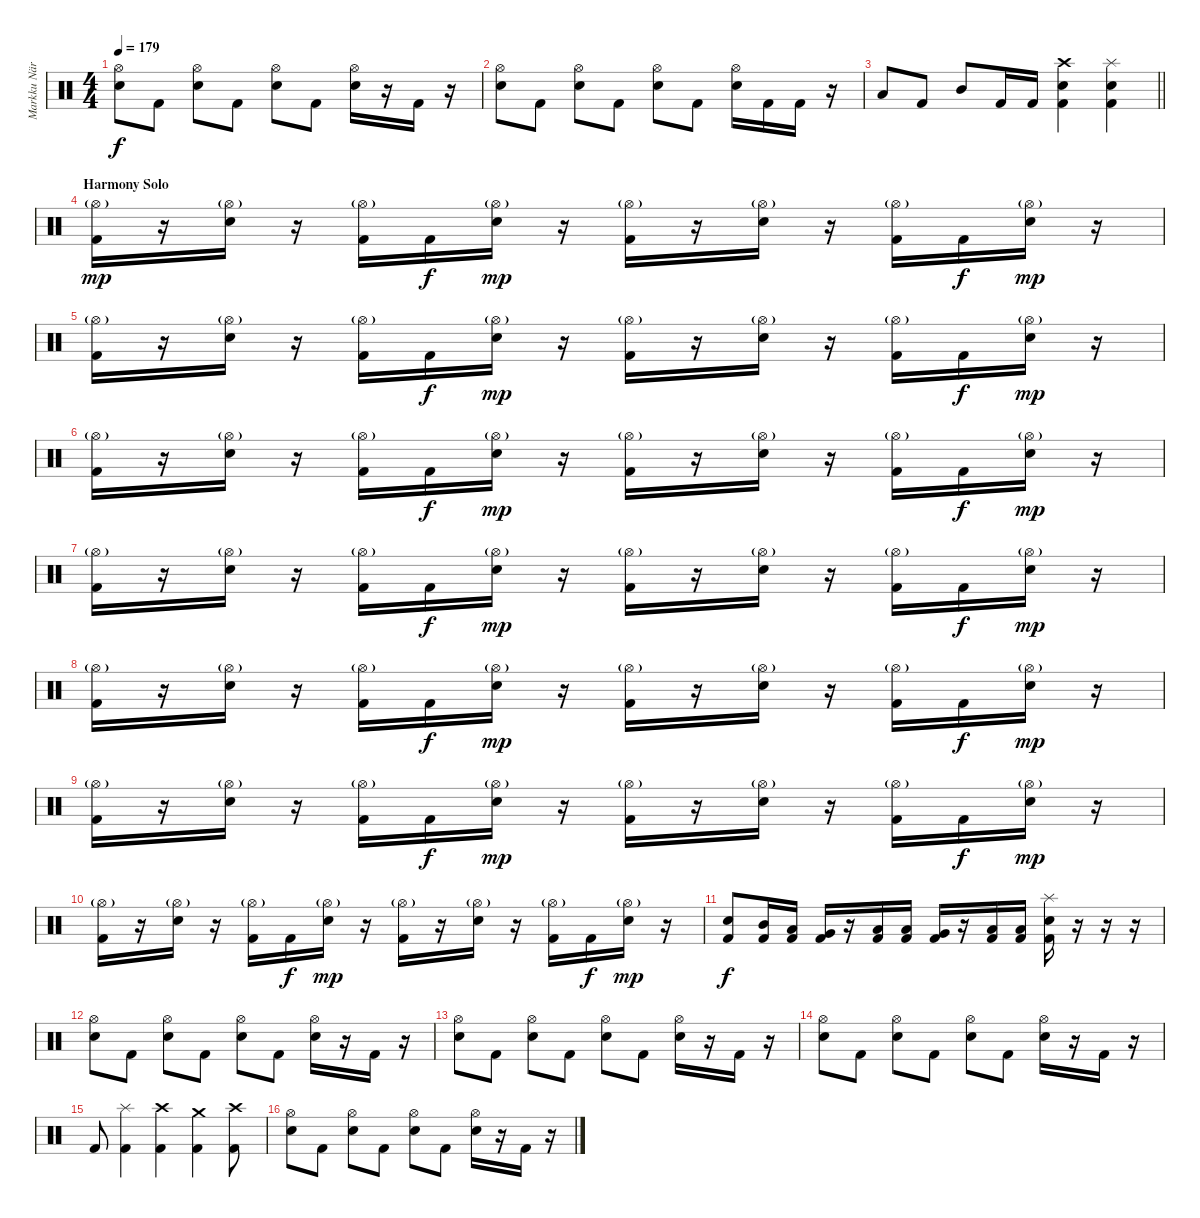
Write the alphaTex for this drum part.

\track ("Markku Näreneva (Drums)" "Markku När") {instrument percussion}
\staff {score}
\articulation defaults
\ts (4 4)
\tempo 179
\clef neutral
\ks c
("Snare (hit) 2" "Hi-Hat (open)").8{dy f} "Kick (hit) 2".8 ("Snare (hit) 2" "Hi-Hat (open)").8 "Kick (hit) 2".8 ("Snare (hit) 2" "Hi-Hat (open)").8 "Kick (hit) 2".8 ("Snare (hit) 2" "Hi-Hat (open)").16 r.16 "Kick (hit) 2".16 r.16 |
("Snare (hit) 2" "Hi-Hat (open)").8 "Kick (hit) 2".8 ("Snare (hit) 2" "Hi-Hat (open)").8 "Kick (hit) 2".8 ("Snare (hit) 2" "Hi-Hat (open)").8 "Kick (hit) 2".8 ("Snare (hit) 2" "Hi-Hat (open)").16 "Kick (hit) 2".16 "Kick (hit) 2".16 r.16 |
\barLineRight lightlight "Low Tom (hit)".8 "Kick (hit) 2".8 "Mid Tom (hit)".8 "Kick (hit) 2".16 "Kick (hit) 2".16
("Kick (hit) 2" "Snare (hit) 2" "Crash high (hit)").4 ("Kick (hit) 2" "Snare (hit) 2" "Splash (hit)").4 |
\section ("" "Harmony Solo")
("Kick (hit) 2" "Hi-Hat (open)"{g}).16{dy mp} r.16 ("Snare (hit) 2" "Hi-Hat (open)"{g}).16 r.16 ("Kick (hit) 2" "Hi-Hat (open)"{g}).16 "Kick (hit) 2".16{dy f} ("Snare (hit) 2" "Hi-Hat (open)"{g}).16{dy mp} r.16 ("Kick (hit) 2" "Hi-Hat (open)"{g}).16 r.16 ("Snare (hit) 2" "Hi-Hat (open)"{g}).16 r.16 ("Kick (hit) 2" "Hi-Hat (open)"{g}).16 "Kick (hit) 2".16{dy f} ("Snare (hit) 2" "Hi-Hat (open)"{g}).16{dy mp} r.16 |
("Kick (hit) 2" "Hi-Hat (open)"{g}).16 r.16 ("Snare (hit) 2" "Hi-Hat (open)"{g}).16 r.16 ("Kick (hit) 2" "Hi-Hat (open)"{g}).16 "Kick (hit) 2".16{dy f} ("Snare (hit) 2" "Hi-Hat (open)"{g}).16{dy mp} r.16 ("Kick (hit) 2" "Hi-Hat (open)"{g}).16 r.16 ("Snare (hit) 2" "Hi-Hat (open)"{g}).16 r.16 ("Kick (hit) 2" "Hi-Hat (open)"{g}).16 "Kick (hit) 2".16{dy f} ("Snare (hit) 2" "Hi-Hat (open)"{g}).16{dy mp} r.16 |
("Kick (hit) 2" "Hi-Hat (open)"{g}).16 r.16 ("Snare (hit) 2" "Hi-Hat (open)"{g}).16 r.16 ("Kick (hit) 2" "Hi-Hat (open)"{g}).16 "Kick (hit) 2".16{dy f} ("Snare (hit) 2" "Hi-Hat (open)"{g}).16{dy mp} r.16 ("Kick (hit) 2" "Hi-Hat (open)"{g}).16 r.16 ("Snare (hit) 2" "Hi-Hat (open)"{g}).16 r.16 ("Kick (hit) 2" "Hi-Hat (open)"{g}).16 "Kick (hit) 2".16{dy f} ("Snare (hit) 2" "Hi-Hat (open)"{g}).16{dy mp} r.16 |
("Kick (hit) 2" "Hi-Hat (open)"{g}).16 r.16 ("Snare (hit) 2" "Hi-Hat (open)"{g}).16 r.16 ("Kick (hit) 2" "Hi-Hat (open)"{g}).16 "Kick (hit) 2".16{dy f} ("Snare (hit) 2" "Hi-Hat (open)"{g}).16{dy mp} r.16 ("Kick (hit) 2" "Hi-Hat (open)"{g}).16 r.16 ("Snare (hit) 2" "Hi-Hat (open)"{g}).16 r.16 ("Kick (hit) 2" "Hi-Hat (open)"{g}).16 "Kick (hit) 2".16{dy f} ("Snare (hit) 2" "Hi-Hat (open)"{g}).16{dy mp} r.16 |
("Kick (hit) 2" "Hi-Hat (open)"{g}).16 r.16 ("Snare (hit) 2" "Hi-Hat (open)"{g}).16 r.16 ("Kick (hit) 2" "Hi-Hat (open)"{g}).16 "Kick (hit) 2".16{dy f} ("Snare (hit) 2" "Hi-Hat (open)"{g}).16{dy mp} r.16 ("Kick (hit) 2" "Hi-Hat (open)"{g}).16 r.16 ("Snare (hit) 2" "Hi-Hat (open)"{g}).16 r.16 ("Kick (hit) 2" "Hi-Hat (open)"{g}).16 "Kick (hit) 2".16{dy f} ("Snare (hit) 2" "Hi-Hat (open)"{g}).16{dy mp} r.16 |
("Kick (hit) 2" "Hi-Hat (open)"{g}).16 r.16 ("Snare (hit) 2" "Hi-Hat (open)"{g}).16 r.16 ("Kick (hit) 2" "Hi-Hat (open)"{g}).16 "Kick (hit) 2".16{dy f} ("Snare (hit) 2" "Hi-Hat (open)"{g}).16{dy mp} r.16 ("Kick (hit) 2" "Hi-Hat (open)"{g}).16 r.16 ("Snare (hit) 2" "Hi-Hat (open)"{g}).16 r.16 ("Kick (hit) 2" "Hi-Hat (open)"{g}).16 "Kick (hit) 2".16{dy f} ("Snare (hit) 2" "Hi-Hat (open)"{g}).16{dy mp} r.16 |
("Kick (hit) 2" "Hi-Hat (open)"{g}).16 r.16 ("Snare (hit) 2" "Hi-Hat (open)"{g}).16 r.16 ("Kick (hit) 2" "Hi-Hat (open)"{g}).16 "Kick (hit) 2".16{dy f} ("Snare (hit) 2" "Hi-Hat (open)"{g}).16{dy mp} r.16 ("Kick (hit) 2" "Hi-Hat (open)"{g}).16 r.16 ("Snare (hit) 2" "Hi-Hat (open)"{g}).16 r.16 ("Kick (hit) 2" "Hi-Hat (open)"{g}).16 "Kick (hit) 2".16{dy f} ("Snare (hit) 2" "Hi-Hat (open)"{g}).16{dy mp} r.16 |
("Kick (hit) 2" "Snare (hit) 2").8{dy f} ("Kick (hit) 2" "Mid Tom (hit)").16 ("Kick (hit) 2" "Low Tom (hit)").16 ("Kick (hit) 2" "Very Low Tom (hit)").16 r.16 ("Kick (hit) 2" "Low Tom (hit)").16 ("Kick (hit) 2" "Low Tom (hit)").16 ("Kick (hit) 2" "Very Low Tom (hit)").16 r.16 ("Kick (hit) 2" "Low Floor Tom (hit)").16 ("Kick (hit) 2" "Low Floor Tom (hit)").16 ("Kick (hit) 2" "Snare (hit) 2" "Splash (hit)").16 r.16 r.16 r.16 |
("Snare (hit) 2" "Hi-Hat (open)").8 "Kick (hit) 2".8 ("Snare (hit) 2" "Hi-Hat (open)").8 "Kick (hit) 2".8 ("Snare (hit) 2" "Hi-Hat (open)").8 "Kick (hit) 2".8 ("Snare (hit) 2" "Hi-Hat (open)").16 r.16 "Kick (hit) 2".16 r.16 |
("Snare (hit) 2" "Hi-Hat (open)").8 "Kick (hit) 2".8 ("Snare (hit) 2" "Hi-Hat (open)").8 "Kick (hit) 2".8 ("Snare (hit) 2" "Hi-Hat (open)").8 "Kick (hit) 2".8 ("Snare (hit) 2" "Hi-Hat (open)").16 r.16 "Kick (hit) 2".16 r.16 |
("Snare (hit) 2" "Hi-Hat (open)").8 "Kick (hit) 2".8 ("Snare (hit) 2" "Hi-Hat (open)").8 "Kick (hit) 2".8 ("Snare (hit) 2" "Hi-Hat (open)").8 "Kick (hit) 2".8 ("Snare (hit) 2" "Hi-Hat (open)").16 r.16 "Kick (hit) 2".16 r.16 |
"Kick (hit) 2".8 ("Kick (hit) 2" "Splash (hit)").4 ("Kick (hit) 2" "Crash high (hit)").4 ("Kick (hit) 2" "Crash medium (hit)").4 ("Kick (hit) 2" "Crash high (hit)").8 |
("Snare (hit) 2" "Hi-Hat (open)").8 "Kick (hit) 2".8 ("Snare (hit) 2" "Hi-Hat (open)").8 "Kick (hit) 2".8 ("Snare (hit) 2" "Hi-Hat (open)").8 "Kick (hit) 2".8 ("Snare (hit) 2" "Hi-Hat (open)").16 r.16 "Kick (hit) 2".16 r.16
